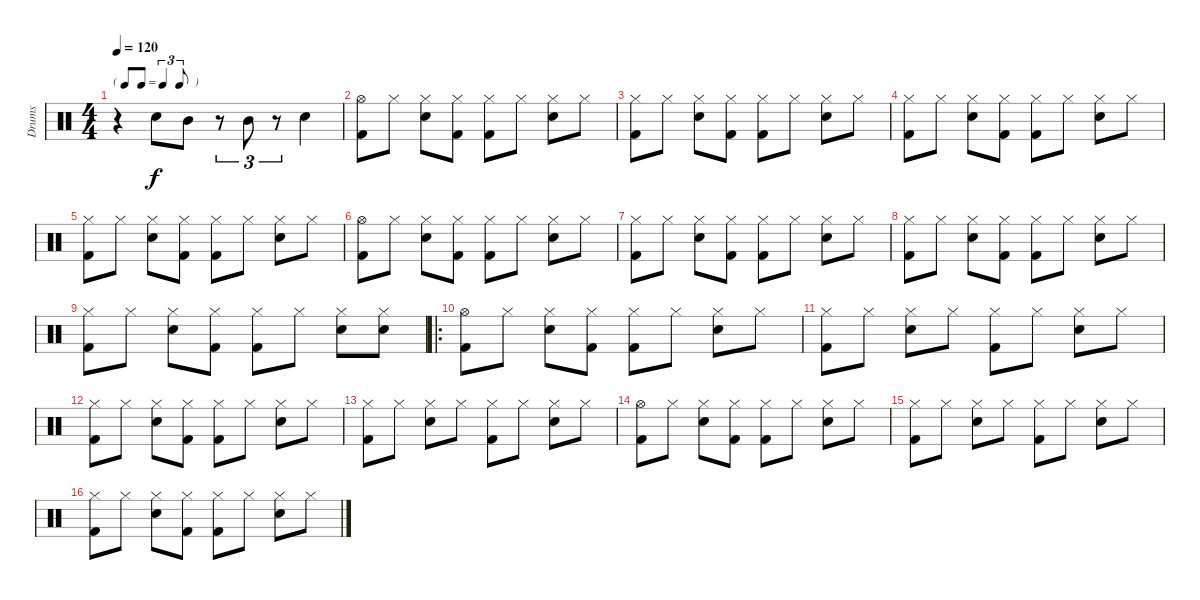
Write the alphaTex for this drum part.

\track ("Drums" "Drums") {instrument percussion}
\staff {score}
\articulation defaults
\ts (4 4)
\tf triplet8th
\tempo 120
\clef neutral
\ks c
r.4{dy f} "Snare (hit) 2".8 "Mid Tom (hit)".8 r.8{tu (3 2)} "Mid Tom (hit)".8{tu (3 2)} r.8{tu (3 2)} "Snare (hit) 2".4 |
("Kick (hit) 2" "Hi-Hat (open)").8 "Hi-Hat (closed)".8 ("Snare (hit) 2" "Hi-Hat (closed)").8 ("Kick (hit) 2" "Hi-Hat (closed)").8 ("Kick (hit) 2" "Hi-Hat (closed)").8 "Hi-Hat (closed)".8 ("Snare (hit) 2" "Hi-Hat (closed)").8 "Hi-Hat (closed)".8 |
("Kick (hit) 2" "Hi-Hat (closed)").8 "Hi-Hat (closed)".8 ("Snare (hit) 2" "Hi-Hat (closed)").8 ("Kick (hit) 2" "Hi-Hat (closed)").8 ("Kick (hit) 2" "Hi-Hat (closed)").8 "Hi-Hat (closed)".8 ("Snare (hit) 2" "Hi-Hat (closed)").8 "Hi-Hat (closed)".8 |
("Kick (hit) 2" "Hi-Hat (closed)").8 "Hi-Hat (closed)".8 ("Snare (hit) 2" "Hi-Hat (closed)").8 ("Kick (hit) 2" "Hi-Hat (closed)").8 ("Kick (hit) 2" "Hi-Hat (closed)").8 "Hi-Hat (closed)".8 ("Snare (hit) 2" "Hi-Hat (closed)").8 "Hi-Hat (closed)".8 |
("Kick (hit) 2" "Hi-Hat (closed)").8 "Hi-Hat (closed)".8 ("Snare (hit) 2" "Hi-Hat (closed)").8 ("Kick (hit) 2" "Hi-Hat (closed)").8 ("Kick (hit) 2" "Hi-Hat (closed)").8 "Hi-Hat (closed)".8 ("Snare (hit) 2" "Hi-Hat (closed)").8 "Hi-Hat (closed)".8 |
("Kick (hit) 2" "Hi-Hat (open)").8 "Hi-Hat (closed)".8 ("Snare (hit) 2" "Hi-Hat (closed)").8 ("Kick (hit) 2" "Hi-Hat (closed)").8 ("Kick (hit) 2" "Hi-Hat (closed)").8 "Hi-Hat (closed)".8 ("Snare (hit) 2" "Hi-Hat (closed)").8 "Hi-Hat (closed)".8 |
("Kick (hit) 2" "Hi-Hat (closed)").8 "Hi-Hat (closed)".8 ("Snare (hit) 2" "Hi-Hat (closed)").8 ("Kick (hit) 2" "Hi-Hat (closed)").8 ("Kick (hit) 2" "Hi-Hat (closed)").8 "Hi-Hat (closed)".8 ("Snare (hit) 2" "Hi-Hat (closed)").8 "Hi-Hat (closed)".8 |
("Kick (hit) 2" "Hi-Hat (closed)").8 "Hi-Hat (closed)".8 ("Snare (hit) 2" "Hi-Hat (closed)").8 ("Kick (hit) 2" "Hi-Hat (closed)").8 ("Kick (hit) 2" "Hi-Hat (closed)").8 "Hi-Hat (closed)".8 ("Snare (hit) 2" "Hi-Hat (closed)").8 "Hi-Hat (closed)".8 |
("Kick (hit) 2" "Hi-Hat (closed)").8 "Hi-Hat (closed)".8 ("Snare (hit) 2" "Hi-Hat (closed)").8 ("Kick (hit) 2" "Hi-Hat (closed)").8 ("Kick (hit) 2" "Hi-Hat (closed)").8 "Hi-Hat (closed)".8 ("Snare (hit) 2" "Hi-Hat (closed)").8 ("Snare (hit) 2" "Hi-Hat (closed)").8 |
\ro
("Kick (hit) 2" "Hi-Hat (open)").8 "Hi-Hat (closed)".8 ("Snare (hit) 2" "Hi-Hat (closed)").8 ("Kick (hit) 2" "Hi-Hat (closed)").8 ("Kick (hit) 2" "Hi-Hat (closed)").8 "Hi-Hat (closed)".8 ("Snare (hit) 2" "Hi-Hat (closed)").8 "Hi-Hat (closed)".8 |
("Kick (hit) 2" "Hi-Hat (closed)").8 "Hi-Hat (closed)".8 ("Snare (hit) 2" "Hi-Hat (closed)").8 "Hi-Hat (closed)".8 ("Kick (hit) 2" "Hi-Hat (closed)").8 "Hi-Hat (closed)".8 ("Snare (hit) 2" "Hi-Hat (closed)").8 "Hi-Hat (closed)".8 |
("Kick (hit) 2" "Hi-Hat (closed)").8 "Hi-Hat (closed)".8 ("Snare (hit) 2" "Hi-Hat (closed)").8 ("Kick (hit) 2" "Hi-Hat (closed)").8 ("Kick (hit) 2" "Hi-Hat (closed)").8 "Hi-Hat (closed)".8 ("Snare (hit) 2" "Hi-Hat (closed)").8 "Hi-Hat (closed)".8 |
("Kick (hit) 2" "Hi-Hat (closed)").8 "Hi-Hat (closed)".8 ("Snare (hit) 2" "Hi-Hat (closed)").8 "Hi-Hat (closed)".8 ("Kick (hit) 2" "Hi-Hat (closed)").8 "Hi-Hat (closed)".8 ("Snare (hit) 2" "Hi-Hat (closed)").8 "Hi-Hat (closed)".8 |
("Kick (hit) 2" "Hi-Hat (open)").8 "Hi-Hat (closed)".8 ("Snare (hit) 2" "Hi-Hat (closed)").8 ("Kick (hit) 2" "Hi-Hat (closed)").8 ("Kick (hit) 2" "Hi-Hat (closed)").8 "Hi-Hat (closed)".8 ("Snare (hit) 2" "Hi-Hat (closed)").8 "Hi-Hat (closed)".8 |
("Kick (hit) 2" "Hi-Hat (closed)").8 "Hi-Hat (closed)".8 ("Snare (hit) 2" "Hi-Hat (closed)").8 "Hi-Hat (closed)".8 ("Kick (hit) 2" "Hi-Hat (closed)").8 "Hi-Hat (closed)".8 ("Snare (hit) 2" "Hi-Hat (closed)").8 "Hi-Hat (closed)".8 |
("Kick (hit) 2" "Hi-Hat (closed)").8 "Hi-Hat (closed)".8 ("Snare (hit) 2" "Hi-Hat (closed)").8 ("Kick (hit) 2" "Hi-Hat (closed)").8 ("Kick (hit) 2" "Hi-Hat (closed)").8 "Hi-Hat (closed)".8 ("Snare (hit) 2" "Hi-Hat (closed)").8 "Hi-Hat (closed)".8
